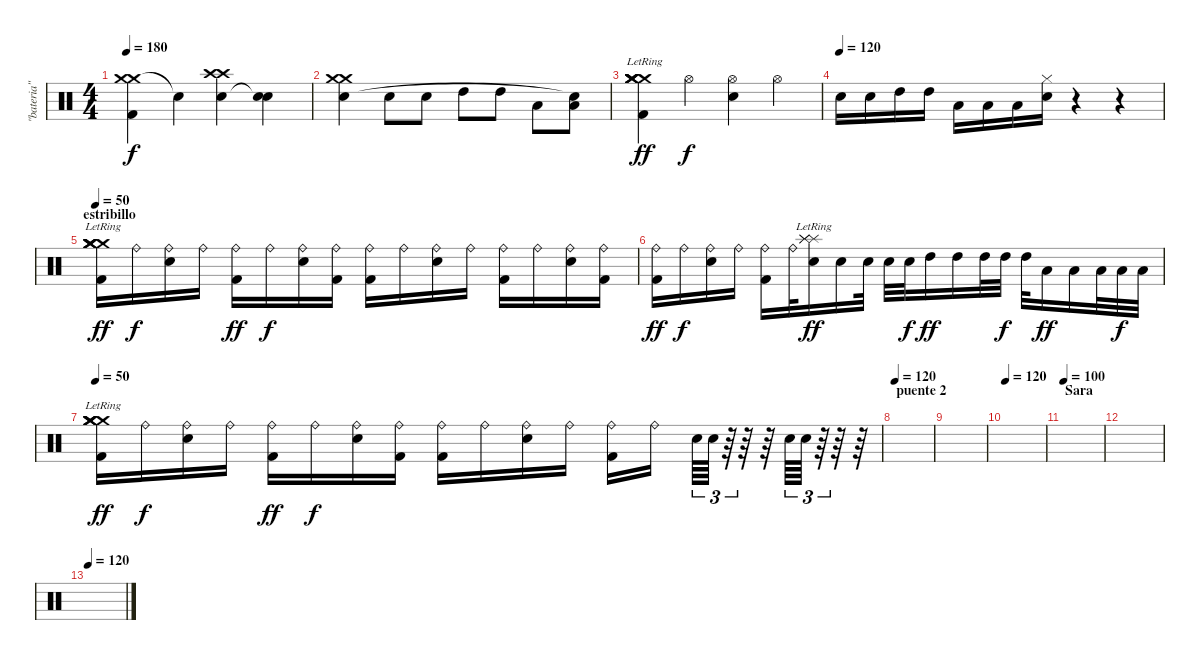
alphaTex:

\track ("\"bateria\"" "\"bateria\"") {instrument percussion}
\staff {score}
\articulation defaults
\ts (4 4)
\tempo 180
\clef neutral
\ks c
("Crash medium (hit)" "Kick (hit) 2" "Crash medium (hit)").4{dy f} "Snare (hit)"{t}.4 ("Crash high (hit)" "Electric Snare (hit)" "Crash high (hit)").4 ("Electric Snare (hit)" "Snare (hit)"{t}).4 |
("Crash medium (hit)" "Electric Snare (hit)" "Crash medium (hit)").4 "Snare (hit) 2".8 "Snare (hit) 2".8 "High Tom (hit)".8 "High Tom (hit)".8 "Low Tom (hit)".8 ("Low Tom (hit)" "Snare (hit)"{t}).8 |
("Kick (hit) 2" "Crash medium (hit)"{lr} "Crash medium (hit)"{lr} "Crash medium (hit)"{lr} "Crash medium (hit)"{lr} "Crash medium (hit)"{lr}).4{dy ff} "Hi-Hat (open)".4{dy f} ("Hi-Hat (open)" "Electric Snare (hit)").4 "Hi-Hat (open)".4 |
\tempo (120)
"Snare (hit) 2".16 "Snare (hit) 2".16 "High Tom (hit)".16 "High Tom (hit)".16 "Low Tom (hit)".16 "Low Tom (hit)".16 "Low Floor Tom (hit)".16 ("Electric Snare (hit)" "Hi-Hat (closed)").16 r.4 r.4 |
\section ("" "estribillo")
\tempo 50
("Kick (hit) 2" "Crash medium (hit)"{lr} "Crash medium (hit)"{lr} "Crash medium (hit)"{lr} "Crash medium (hit)"{lr} "Crash medium (hit)"{lr}).16{dy ff} "Ride (bell)".16{dy f} ("Ride (bell)" "Electric Snare (hit)").16 "Ride (bell)".16 ("Ride (bell)" "Kick (hit) 2").16{dy ff} "Ride (bell)".16{dy f} ("Ride (bell)" "Electric Snare (hit)").16 ("Ride (bell)" "Kick (hit) 2").16 ("Ride (bell)" "Kick (hit) 2").16 "Ride (bell)".16 ("Ride (bell)" "Electric Snare (hit)").16 "Ride (bell)".16 ("Ride (bell)" "Kick (hit) 2").16 "Ride (bell)".16 ("Ride (bell)" "Electric Snare (hit)").16 ("Ride (bell)" "Kick (hit) 2").16 |
("Ride (bell)" "Kick (hit) 2").16{dy ff} "Ride (bell)".16{dy f} ("Ride (bell)" "Electric Snare (hit)").16 "Ride (bell)".16 ("Ride (bell)" "Kick (hit) 2").16 "Ride (bell)".32 ("Splash (hit)"{lr} "Electric Snare (hit)" "Splash (hit)"{lr} "Splash (hit)"{lr}).16{dy ff} "Snare (hit) 2".16 "Snare (hit) 2".32 "Snare (hit) 2".32 "Snare (hit) 2".32{dy f} "High Tom (hit)".16{dy ff} "High Tom (hit)".16 "High Tom (hit)".32 "High Tom (hit)".32{dy f} "High Tom (hit)".32 "Low Tom (hit)".16{dy ff} "Low Tom (hit)".16 "Low Tom (hit)".32 "Low Tom (hit)".32{dy f} "Low Tom (hit)".32 |
\tempo 50
("Kick (hit) 2" "Crash medium (hit)"{lr} "Crash medium (hit)"{lr} "Crash medium (hit)"{lr} "Crash medium (hit)"{lr} "Crash medium (hit)"{lr}).16{dy ff} "Ride (bell)".16{dy f} ("Ride (bell)" "Electric Snare (hit)").16 "Ride (bell)".16 ("Ride (bell)" "Kick (hit) 2").16{dy ff} "Ride (bell)".16{dy f} ("Ride (bell)" "Electric Snare (hit)").16 ("Ride (bell)" "Kick (hit) 2").16 ("Ride (bell)" "Kick (hit) 2").16 "Ride (bell)".16 ("Ride (bell)" "Electric Snare (hit)").16 "Ride (bell)".16 ("Ride (bell)" "Kick (hit) 2").16 "Ride (bell)".16 "Snare (hit) 2".64{tu (3 2)} "Snare (hit) 2".64{tu (3 2)} r.64{tu (3 2)} r.64 r.64 "Snare (hit) 2".64{tu (3 2)} "Snare (hit) 2".64{tu (3 2)} r.64{tu (3 2)} r.64 r.64 |
\section ("" "puente 2")
\tempo 120
|
|
\tempo 120
|
\section ("" "Sara")
\tempo 100
|
|
\tempo 120
